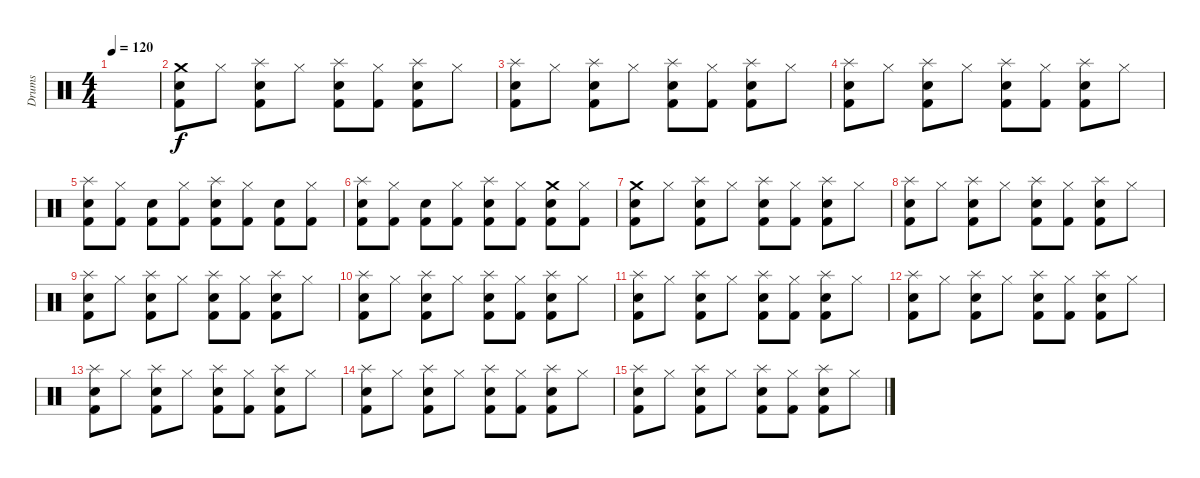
\track ("Drums" "Drums") {instrument percussion}
\staff {score}
\articulation defaults
\ts (4 4)
\tempo 120
\clef neutral
\ks c
|
("Crash medium (hit)" "Electric Snare (hit)" "Kick (hit) 2").8 "Hi-Hat (closed)".8 ("Splash (hit)" "Electric Snare (hit)" "Kick (hit) 2").8 "Hi-Hat (closed)".8 ("Splash (hit)" "Electric Snare (hit)" "Kick (hit) 2").8 ("Hi-Hat (closed)" "Kick (hit) 2").8 ("Splash (hit)" "Electric Snare (hit)" "Kick (hit) 2").8 "Hi-Hat (closed)".8 |
("Splash (hit)" "Electric Snare (hit)" "Kick (hit) 2").8 "Hi-Hat (closed)".8 ("Splash (hit)" "Electric Snare (hit)" "Kick (hit) 2").8 "Hi-Hat (closed)".8 ("Splash (hit)" "Electric Snare (hit)" "Kick (hit) 2").8 ("Hi-Hat (closed)" "Kick (hit) 2").8 ("Splash (hit)" "Electric Snare (hit)" "Kick (hit) 2").8 "Hi-Hat (closed)".8 |
("Splash (hit)" "Electric Snare (hit)" "Kick (hit) 2").8 "Hi-Hat (closed)".8 ("Splash (hit)" "Electric Snare (hit)" "Kick (hit) 2").8 "Hi-Hat (closed)".8 ("Splash (hit)" "Electric Snare (hit)" "Kick (hit) 2").8 ("Hi-Hat (closed)" "Kick (hit) 2").8 ("Splash (hit)" "Electric Snare (hit)" "Kick (hit) 2").8 "Hi-Hat (closed)".8 |
("Splash (hit)" "Electric Snare (hit)" "Kick (hit) 2").8 ("Hi-Hat (closed)" "Kick (hit) 2").8 ("Electric Snare (hit)" "Kick (hit) 2").8 ("Hi-Hat (closed)" "Kick (hit) 2").8 ("Splash (hit)" "Electric Snare (hit)" "Kick (hit) 2").8 ("Hi-Hat (closed)" "Kick (hit) 2").8 ("Electric Snare (hit)" "Kick (hit) 2").8 ("Hi-Hat (closed)" "Kick (hit) 2").8 |
("Splash (hit)" "Electric Snare (hit)" "Kick (hit) 2").8 ("Hi-Hat (closed)" "Kick (hit) 2").8 ("Electric Snare (hit)" "Kick (hit) 2").8 ("Hi-Hat (closed)" "Kick (hit) 2").8 ("Splash (hit)" "Electric Snare (hit)" "Kick (hit) 2").8 ("Hi-Hat (closed)" "Kick (hit) 2").8 ("Crash medium (hit)" "Electric Snare (hit)" "Kick (hit) 2").8 ("Hi-Hat (closed)" "Kick (hit) 2").8 |
("Crash medium (hit)" "Electric Snare (hit)" "Kick (hit) 2").8 "Hi-Hat (closed)".8 ("Splash (hit)" "Electric Snare (hit)" "Kick (hit) 2").8 "Hi-Hat (closed)".8 ("Splash (hit)" "Electric Snare (hit)" "Kick (hit) 2").8 ("Hi-Hat (closed)" "Kick (hit) 2").8 ("Splash (hit)" "Electric Snare (hit)" "Kick (hit) 2").8 "Hi-Hat (closed)".8 |
("Splash (hit)" "Electric Snare (hit)" "Kick (hit) 2").8 "Hi-Hat (closed)".8 ("Splash (hit)" "Electric Snare (hit)" "Kick (hit) 2").8 "Hi-Hat (closed)".8 ("Splash (hit)" "Electric Snare (hit)" "Kick (hit) 2").8 ("Hi-Hat (closed)" "Kick (hit) 2").8 ("Splash (hit)" "Electric Snare (hit)" "Kick (hit) 2").8 "Hi-Hat (closed)".8 |
("Splash (hit)" "Electric Snare (hit)" "Kick (hit) 2").8 "Hi-Hat (closed)".8 ("Splash (hit)" "Electric Snare (hit)" "Kick (hit) 2").8 "Hi-Hat (closed)".8 ("Splash (hit)" "Electric Snare (hit)" "Kick (hit) 2").8 ("Hi-Hat (closed)" "Kick (hit) 2").8 ("Splash (hit)" "Electric Snare (hit)" "Kick (hit) 2").8 "Hi-Hat (closed)".8 |
("Splash (hit)" "Electric Snare (hit)" "Kick (hit) 2").8 "Hi-Hat (closed)".8 ("Splash (hit)" "Electric Snare (hit)" "Kick (hit) 2").8 "Hi-Hat (closed)".8 ("Splash (hit)" "Electric Snare (hit)" "Kick (hit) 2").8 ("Hi-Hat (closed)" "Kick (hit) 2").8 ("Splash (hit)" "Electric Snare (hit)" "Kick (hit) 2").8 "Hi-Hat (closed)".8 |
("Splash (hit)" "Electric Snare (hit)" "Kick (hit) 2").8 "Hi-Hat (closed)".8 ("Splash (hit)" "Electric Snare (hit)" "Kick (hit) 2").8 "Hi-Hat (closed)".8 ("Splash (hit)" "Electric Snare (hit)" "Kick (hit) 2").8 ("Hi-Hat (closed)" "Kick (hit) 2").8 ("Splash (hit)" "Electric Snare (hit)" "Kick (hit) 2").8 "Hi-Hat (closed)".8 |
("Splash (hit)" "Electric Snare (hit)" "Kick (hit) 2").8 "Hi-Hat (closed)".8 ("Splash (hit)" "Electric Snare (hit)" "Kick (hit) 2").8 "Hi-Hat (closed)".8 ("Splash (hit)" "Electric Snare (hit)" "Kick (hit) 2").8 ("Hi-Hat (closed)" "Kick (hit) 2").8 ("Splash (hit)" "Electric Snare (hit)" "Kick (hit) 2").8 "Hi-Hat (closed)".8 |
("Splash (hit)" "Electric Snare (hit)" "Kick (hit) 2").8 "Hi-Hat (closed)".8 ("Splash (hit)" "Electric Snare (hit)" "Kick (hit) 2").8 "Hi-Hat (closed)".8 ("Splash (hit)" "Electric Snare (hit)" "Kick (hit) 2").8 ("Hi-Hat (closed)" "Kick (hit) 2").8 ("Splash (hit)" "Electric Snare (hit)" "Kick (hit) 2").8 "Hi-Hat (closed)".8 |
("Splash (hit)" "Electric Snare (hit)" "Kick (hit) 2").8 "Hi-Hat (closed)".8 ("Splash (hit)" "Electric Snare (hit)" "Kick (hit) 2").8 "Hi-Hat (closed)".8 ("Splash (hit)" "Electric Snare (hit)" "Kick (hit) 2").8 ("Hi-Hat (closed)" "Kick (hit) 2").8 ("Splash (hit)" "Electric Snare (hit)" "Kick (hit) 2").8 "Hi-Hat (closed)".8 |
("Splash (hit)" "Electric Snare (hit)" "Kick (hit) 2").8 "Hi-Hat (closed)".8 ("Splash (hit)" "Electric Snare (hit)" "Kick (hit) 2").8 "Hi-Hat (closed)".8 ("Splash (hit)" "Electric Snare (hit)" "Kick (hit) 2").8 ("Hi-Hat (closed)" "Kick (hit) 2").8 ("Splash (hit)" "Electric Snare (hit)" "Kick (hit) 2").8 "Hi-Hat (closed)".8
